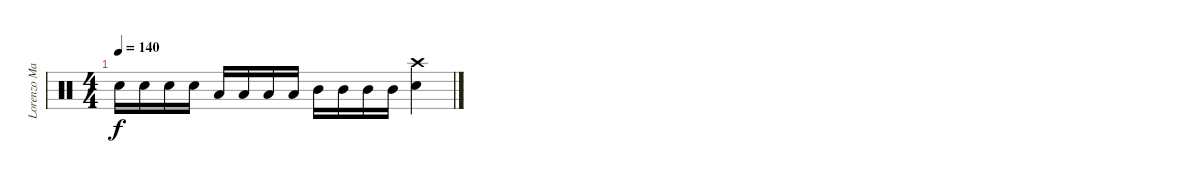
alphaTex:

\track ("Lorenzo Marcelloni" "Lorenzo Ma") {instrument percussion}
\staff {score}
\articulation defaults
\ts (4 4)
\tempo 140
\clef neutral
\ks c "Electric Snare (hit)".16{dy f} "Electric Snare (hit)".16 "Electric Snare (hit)".16 "Electric Snare (hit)".16 "Low Tom (hit)".16 "Low Tom (hit)".16 "Low Tom (hit)".16 "Low Tom (hit)".16 "Mid Tom (hit)".16 "Mid Tom (hit)".16 "Mid Tom (hit)".16 "Mid Tom (hit)".16
("Crash high (hit)" "Electric Snare (hit)").4
